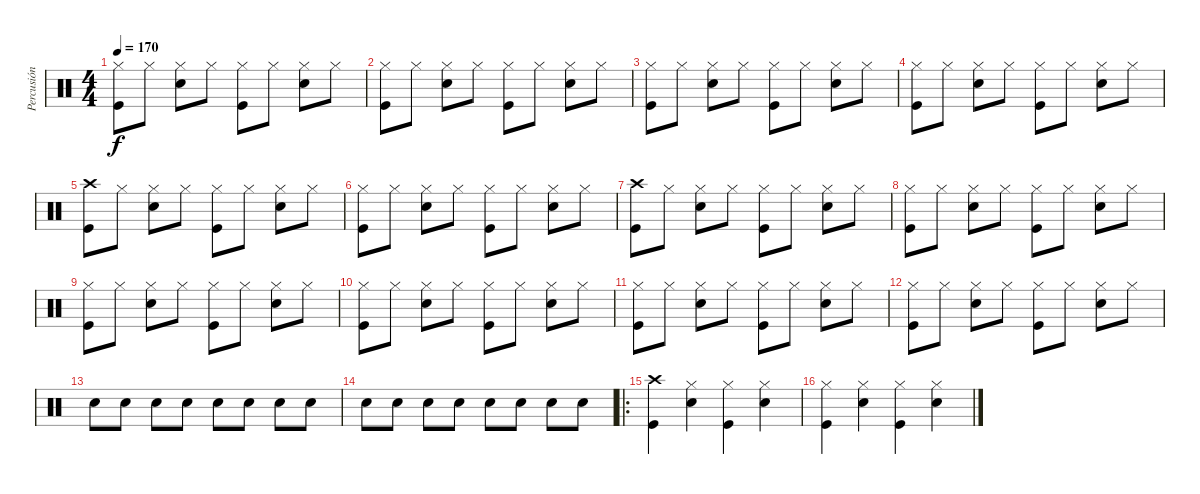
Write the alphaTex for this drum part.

\track ("Percusión" "Percusión") {instrument percussion}
\staff {score}
\articulation defaults
\ts (4 4)
\tempo 170
\clef neutral
\ks c
("Kick (hit)" "Hi-Hat (closed)").8{dy f} "Hi-Hat (closed)".8 ("Snare (hit) 2" "Hi-Hat (closed)").8 "Hi-Hat (closed)".8 ("Kick (hit)" "Hi-Hat (closed)").8 "Hi-Hat (closed)".8 ("Snare (hit) 2" "Hi-Hat (closed)").8 "Hi-Hat (closed)".8 |
("Kick (hit)" "Hi-Hat (closed)").8 "Hi-Hat (closed)".8 ("Snare (hit) 2" "Hi-Hat (closed)").8 "Hi-Hat (closed)".8 ("Kick (hit)" "Hi-Hat (closed)").8 "Hi-Hat (closed)".8 ("Snare (hit) 2" "Hi-Hat (closed)").8 "Hi-Hat (closed)".8 |
("Kick (hit)" "Hi-Hat (closed)").8 "Hi-Hat (closed)".8 ("Snare (hit) 2" "Hi-Hat (closed)").8 "Hi-Hat (closed)".8 ("Kick (hit)" "Hi-Hat (closed)").8 "Hi-Hat (closed)".8 ("Snare (hit) 2" "Hi-Hat (closed)").8 "Hi-Hat (closed)".8 |
("Kick (hit)" "Hi-Hat (closed)").8 "Hi-Hat (closed)".8 ("Snare (hit) 2" "Hi-Hat (closed)").8 "Hi-Hat (closed)".8 ("Kick (hit)" "Hi-Hat (closed)").8 "Hi-Hat (closed)".8 ("Snare (hit) 2" "Hi-Hat (closed)").8 "Hi-Hat (closed)".8 |
("Kick (hit)" "Crash high (hit)").8 "Hi-Hat (closed)".8 ("Snare (hit) 2" "Hi-Hat (closed)").8 "Hi-Hat (closed)".8 ("Kick (hit)" "Hi-Hat (closed)").8 "Hi-Hat (closed)".8 ("Snare (hit) 2" "Hi-Hat (closed)").8 "Hi-Hat (closed)".8 |
("Kick (hit)" "Hi-Hat (closed)").8 "Hi-Hat (closed)".8 ("Snare (hit) 2" "Hi-Hat (closed)").8 "Hi-Hat (closed)".8 ("Kick (hit)" "Hi-Hat (closed)").8 "Hi-Hat (closed)".8 ("Snare (hit) 2" "Hi-Hat (closed)").8 "Hi-Hat (closed)".8 |
("Kick (hit)" "Crash high (hit)").8 "Hi-Hat (closed)".8 ("Snare (hit) 2" "Hi-Hat (closed)").8 "Hi-Hat (closed)".8 ("Kick (hit)" "Hi-Hat (closed)").8 "Hi-Hat (closed)".8 ("Snare (hit) 2" "Hi-Hat (closed)").8 "Hi-Hat (closed)".8 |
("Kick (hit)" "Hi-Hat (closed)").8 "Hi-Hat (closed)".8 ("Snare (hit) 2" "Hi-Hat (closed)").8 "Hi-Hat (closed)".8 ("Kick (hit)" "Hi-Hat (closed)").8 "Hi-Hat (closed)".8 ("Snare (hit) 2" "Hi-Hat (closed)").8 "Hi-Hat (closed)".8 |
("Kick (hit)" "Hi-Hat (closed)").8 "Hi-Hat (closed)".8 ("Snare (hit) 2" "Hi-Hat (closed)").8 "Hi-Hat (closed)".8 ("Kick (hit)" "Hi-Hat (closed)").8 "Hi-Hat (closed)".8 ("Snare (hit) 2" "Hi-Hat (closed)").8 "Hi-Hat (closed)".8 |
("Kick (hit)" "Hi-Hat (closed)").8 "Hi-Hat (closed)".8 ("Snare (hit) 2" "Hi-Hat (closed)").8 "Hi-Hat (closed)".8 ("Kick (hit)" "Hi-Hat (closed)").8 "Hi-Hat (closed)".8 ("Snare (hit) 2" "Hi-Hat (closed)").8 "Hi-Hat (closed)".8 |
("Kick (hit)" "Hi-Hat (closed)").8 "Hi-Hat (closed)".8 ("Snare (hit) 2" "Hi-Hat (closed)").8 "Hi-Hat (closed)".8 ("Kick (hit)" "Hi-Hat (closed)").8 "Hi-Hat (closed)".8 ("Snare (hit) 2" "Hi-Hat (closed)").8 "Hi-Hat (closed)".8 |
("Kick (hit)" "Hi-Hat (closed)").8 "Hi-Hat (closed)".8 ("Snare (hit) 2" "Hi-Hat (closed)").8 "Hi-Hat (closed)".8 ("Kick (hit)" "Hi-Hat (closed)").8 "Hi-Hat (closed)".8 ("Snare (hit) 2" "Hi-Hat (closed)").8 "Hi-Hat (closed)".8 |
"Snare (hit) 2".8 "Snare (hit) 2".8 "Snare (hit) 2".8 "Snare (hit) 2".8 "Snare (hit) 2".8 "Snare (hit) 2".8 "Snare (hit) 2".8 "Snare (hit) 2".8 |
"Snare (hit) 2".8 "Snare (hit) 2".8 "Snare (hit) 2".8 "Snare (hit) 2".8 "Snare (hit) 2".8 "Snare (hit) 2".8 "Snare (hit) 2".8 "Snare (hit) 2".8 |
\ro
("Kick (hit)" "Crash high (hit)").4 ("Snare (hit) 2" "Hi-Hat (closed)").4 ("Kick (hit)" "Hi-Hat (closed)").4 ("Snare (hit) 2" "Hi-Hat (closed)").4 |
("Kick (hit)" "Hi-Hat (closed)").4 ("Snare (hit) 2" "Hi-Hat (closed)").4 ("Kick (hit)" "Hi-Hat (closed)").4 ("Snare (hit) 2" "Hi-Hat (closed)").4
